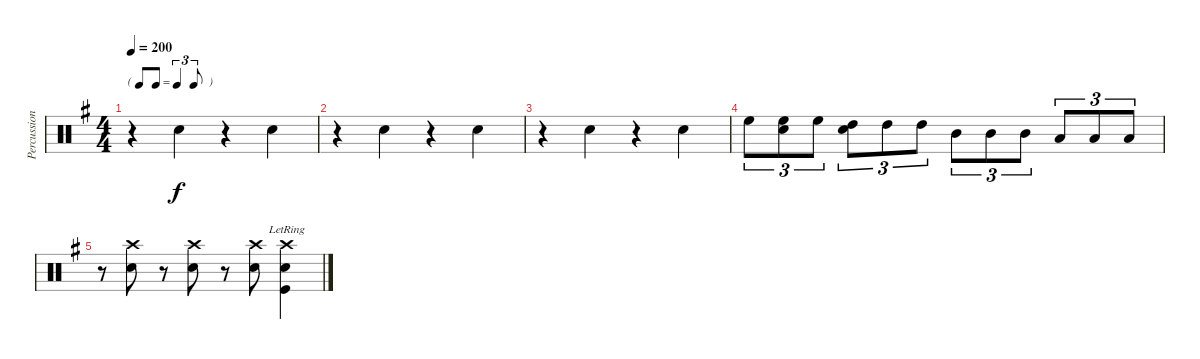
\track ("Percussion" "Percussion") {instrument percussion}
\staff {score}
\articulation defaults
\ts (4 4)
\tf triplet8th
\tempo 200
\clef neutral
\ks g
r.4{dy f} "Hand Clap (hit)".4 r.4 "Hand Clap (hit)".4 |
r.4 "Hand Clap (hit)".4 r.4 "Hand Clap (hit)".4 |
r.4 "Hand Clap (hit)".4 r.4 "Hand Clap (hit)".4 |
"High Floor Tom (hit)".8{tu (3 2)} ("Hand Clap (hit)" "High Floor Tom (hit)").8{tu (3 2)} "High Floor Tom (hit)".8{tu (3 2)} ("Hand Clap (hit)" "High Tom (hit)").8{tu (3 2)} "High Tom (hit)".8{tu (3 2)} "High Tom (hit)".8{tu (3 2)} "Mid Tom (hit)".8{tu (3 2)} "Mid Tom (hit)".8{tu (3 2)} "Mid Tom (hit)".8{tu (3 2)} "Low Tom (hit)".8{tu (3 2)} "Low Tom (hit)".8{tu (3 2)} "Low Tom (hit)".8{tu (3 2)} |
r.8 ("Crash high (hit)" "Snare (hit) 2").8 r.8 ("Crash high (hit)" "Snare (hit) 2").8 r.8 ("Crash high (hit)" "Snare (hit) 2").8 ("Crash high (hit)"{lr} "Snare (hit) 2"{lr} "Kick (hit)"{lr}).4
